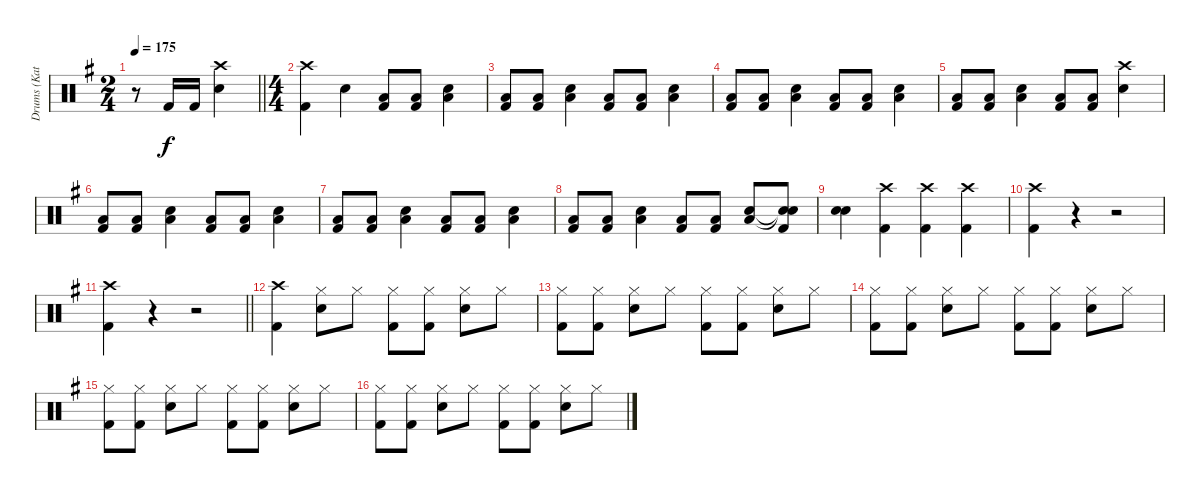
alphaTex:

\track ("Drums (Katsuji)" "Drums (Kat") {instrument percussion}
\staff {score}
\articulation defaults
\ts (2 4)
\tempo 175
\clef neutral
\barLineRight lightlight
\ks g
r.8{dy f} "Kick (hit) 2".16 "Kick (hit) 2".16 ("Crash high (hit)" "Snare (hit) 2").4 |
\ts (4 4)
("Crash high (hit)" "Kick (hit) 2").4 "Snare (hit) 2".4 ("Low Tom (hit)" "Kick (hit) 2").8 ("Low Tom (hit)" "Kick (hit) 2").8 ("Snare (hit) 2" "Low Tom (hit)").4 |
("Low Tom (hit)" "Kick (hit) 2").8 ("Low Tom (hit)" "Kick (hit) 2").8 ("Snare (hit) 2" "Low Tom (hit)").4 ("Low Tom (hit)" "Kick (hit) 2").8 ("Low Tom (hit)" "Kick (hit) 2").8 ("Snare (hit) 2" "Low Tom (hit)").4 |
("Low Tom (hit)" "Kick (hit) 2").8 ("Low Tom (hit)" "Kick (hit) 2").8 ("Snare (hit) 2" "Low Tom (hit)").4 ("Low Tom (hit)" "Kick (hit) 2").8 ("Low Tom (hit)" "Kick (hit) 2").8 ("Snare (hit) 2" "Low Tom (hit)").4 |
("Low Tom (hit)" "Kick (hit) 2").8 ("Low Tom (hit)" "Kick (hit) 2").8 ("Snare (hit) 2" "Low Tom (hit)").4 ("Low Tom (hit)" "Kick (hit) 2").8 ("Low Tom (hit)" "Kick (hit) 2").8 ("Crash high (hit)" "Snare (hit) 2").4 |
("Low Tom (hit)" "Kick (hit) 2").8 ("Low Tom (hit)" "Kick (hit) 2").8 ("Snare (hit) 2" "Low Tom (hit)").4 ("Low Tom (hit)" "Kick (hit) 2").8 ("Low Tom (hit)" "Kick (hit) 2").8 ("Snare (hit) 2" "Low Tom (hit)").4 |
("Low Tom (hit)" "Kick (hit) 2").8 ("Low Tom (hit)" "Kick (hit) 2").8 ("Snare (hit) 2" "Low Tom (hit)").4 ("Low Tom (hit)" "Kick (hit) 2").8 ("Low Tom (hit)" "Kick (hit) 2").8 ("Snare (hit) 2" "Low Tom (hit)").4 |
("Low Tom (hit)" "Kick (hit) 2").8 ("Low Tom (hit)" "Kick (hit) 2").8 ("Snare (hit) 2" "Low Tom (hit)").4 ("Low Tom (hit)" "Kick (hit) 2").8 ("Low Tom (hit)" "Kick (hit) 2").8 ("Snare (hit) 2" "Low Tom (hit)").8 ("Snare (hit)"{t} "Snare (hit)"{t} "Kick (hit) 2").8 |
("Snare (hit) 2" "Snare (hit) 2").4 ("Crash high (hit)" "Kick (hit) 2").4 ("Crash high (hit)" "Kick (hit) 2").4 ("Crash high (hit)" "Kick (hit) 2").4 |
("Crash high (hit)" "Kick (hit) 2").4 r.4 r.2 |
\barLineRight lightlight
("Crash high (hit)" "Kick (hit) 2").4 r.4 r.2 |
("Crash high (hit)" "Kick (hit) 2").4 ("Hi-Hat (closed)" "Snare (hit) 2").8 "Hi-Hat (closed)".8 ("Hi-Hat (closed)" "Kick (hit) 2").8 ("Hi-Hat (closed)" "Kick (hit) 2").8 ("Hi-Hat (closed)" "Snare (hit) 2").8 "Hi-Hat (closed)".8 |
("Hi-Hat (closed)" "Kick (hit) 2").8 ("Hi-Hat (closed)" "Kick (hit) 2").8 ("Hi-Hat (closed)" "Snare (hit) 2").8 "Hi-Hat (closed)".8 ("Hi-Hat (closed)" "Kick (hit) 2").8 ("Hi-Hat (closed)" "Kick (hit) 2").8 ("Hi-Hat (closed)" "Snare (hit) 2").8 "Hi-Hat (closed)".8 |
("Hi-Hat (closed)" "Kick (hit) 2").8 ("Hi-Hat (closed)" "Kick (hit) 2").8 ("Hi-Hat (closed)" "Snare (hit) 2").8 "Hi-Hat (closed)".8 ("Hi-Hat (closed)" "Kick (hit) 2").8 ("Hi-Hat (closed)" "Kick (hit) 2").8 ("Hi-Hat (closed)" "Snare (hit) 2").8 "Hi-Hat (closed)".8 |
("Hi-Hat (closed)" "Kick (hit) 2").8 ("Hi-Hat (closed)" "Kick (hit) 2").8 ("Hi-Hat (closed)" "Snare (hit) 2").8 "Hi-Hat (closed)".8 ("Hi-Hat (closed)" "Kick (hit) 2").8 ("Hi-Hat (closed)" "Kick (hit) 2").8 ("Hi-Hat (closed)" "Snare (hit) 2").8 "Hi-Hat (closed)".8 |
("Hi-Hat (closed)" "Kick (hit) 2").8 ("Hi-Hat (closed)" "Kick (hit) 2").8 ("Hi-Hat (closed)" "Snare (hit) 2").8 "Hi-Hat (closed)".8 ("Hi-Hat (closed)" "Kick (hit) 2").8 ("Hi-Hat (closed)" "Kick (hit) 2").8 ("Hi-Hat (closed)" "Snare (hit) 2").8 "Hi-Hat (closed)".8
